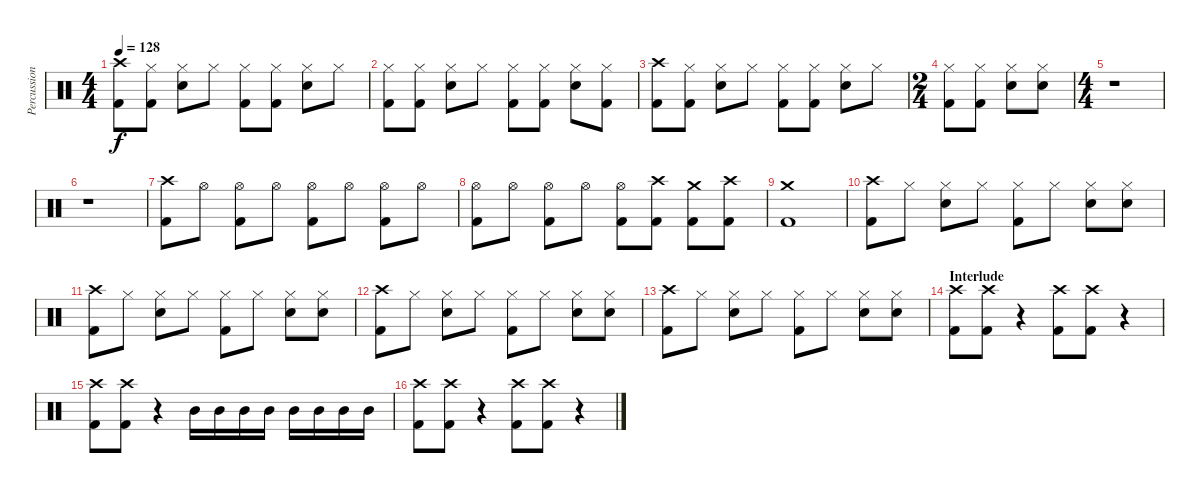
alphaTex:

\track ("Percussion" "Percussion") {instrument percussion}
\staff {score}
\articulation defaults
\ts (4 4)
\tempo 128
\clef neutral
\ks c
("Crash high (hit)" "Kick (hit) 2").8{dy f} ("Hi-Hat (closed)" "Kick (hit) 2").8 ("Hi-Hat (closed)" "Snare (hit) 2").8 "Hi-Hat (closed)".8 ("Hi-Hat (closed)" "Kick (hit) 2").8 ("Hi-Hat (closed)" "Kick (hit) 2").8 ("Hi-Hat (closed)" "Snare (hit) 2").8 "Hi-Hat (closed)".8 |
("Hi-Hat (closed)" "Kick (hit) 2").8 ("Hi-Hat (closed)" "Kick (hit) 2").8 ("Hi-Hat (closed)" "Snare (hit) 2").8 "Hi-Hat (closed)".8 ("Hi-Hat (closed)" "Kick (hit) 2").8 ("Hi-Hat (closed)" "Kick (hit) 2").8 ("Hi-Hat (closed)" "Snare (hit) 2").8 ("Hi-Hat (closed)" "Kick (hit) 2").8 |
("Crash high (hit)" "Kick (hit) 2").8 ("Hi-Hat (closed)" "Kick (hit) 2").8 ("Hi-Hat (closed)" "Snare (hit) 2").8 "Hi-Hat (closed)".8 ("Hi-Hat (closed)" "Kick (hit) 2").8 ("Hi-Hat (closed)" "Kick (hit) 2").8 ("Hi-Hat (closed)" "Snare (hit) 2").8 "Hi-Hat (closed)".8 |
\ts (2 4)
("Hi-Hat (closed)" "Kick (hit) 2").8 ("Hi-Hat (closed)" "Kick (hit) 2").8 ("Hi-Hat (closed)" "Snare (hit) 2").8 ("Hi-Hat (closed)" "Snare (hit) 2").8 |
\ts (4 4)
r.1 |
r.1 |
("Crash high (hit)" "Kick (hit) 2").8 "Hi-Hat (open)".8 ("Hi-Hat (open)" "Kick (hit) 2").8 "Hi-Hat (open)".8 ("Hi-Hat (open)" "Kick (hit) 2").8 "Hi-Hat (open)".8 ("Hi-Hat (open)" "Kick (hit) 2").8 "Hi-Hat (open)".8 |
("Hi-Hat (open)" "Kick (hit) 2").8 "Hi-Hat (open)".8 ("Hi-Hat (open)" "Kick (hit) 2").8 "Hi-Hat (open)".8 ("Hi-Hat (open)" "Kick (hit) 2").8 ("Crash high (hit)" "Kick (hit) 2").8 ("Crash medium (hit)" "Kick (hit) 2").8 ("Crash high (hit)" "Kick (hit) 2").8 |
("Crash medium (hit)" "Kick (hit) 2").1 |
("Crash high (hit)" "Kick (hit) 2").8 "Hi-Hat (closed)".8 ("Hi-Hat (closed)" "Snare (hit) 2").8 "Hi-Hat (closed)".8 ("Hi-Hat (closed)" "Kick (hit) 2").8 "Hi-Hat (closed)".8 ("Hi-Hat (closed)" "Snare (hit) 2").8 ("Hi-Hat (closed)" "Snare (hit) 2").8 |
("Crash high (hit)" "Kick (hit) 2").8 "Hi-Hat (closed)".8 ("Hi-Hat (closed)" "Snare (hit) 2").8 "Hi-Hat (closed)".8 ("Hi-Hat (closed)" "Kick (hit) 2").8 "Hi-Hat (closed)".8 ("Hi-Hat (closed)" "Snare (hit) 2").8 ("Hi-Hat (closed)" "Snare (hit) 2").8 |
("Crash high (hit)" "Kick (hit) 2").8 "Hi-Hat (closed)".8 ("Hi-Hat (closed)" "Snare (hit) 2").8 "Hi-Hat (closed)".8 ("Hi-Hat (closed)" "Kick (hit) 2").8 "Hi-Hat (closed)".8 ("Hi-Hat (closed)" "Snare (hit) 2").8 ("Hi-Hat (closed)" "Snare (hit) 2").8 |
("Crash high (hit)" "Kick (hit) 2").8 "Hi-Hat (closed)".8 ("Hi-Hat (closed)" "Snare (hit) 2").8 "Hi-Hat (closed)".8 ("Hi-Hat (closed)" "Kick (hit) 2").8 "Hi-Hat (closed)".8 ("Hi-Hat (closed)" "Snare (hit) 2").8 ("Hi-Hat (closed)" "Snare (hit) 2").8 |
\section ("" "Interlude")
("Crash high (hit)" "Kick (hit) 2").8 ("Crash high (hit)" "Kick (hit) 2").8 r.4 ("Crash high (hit)" "Kick (hit) 2").8 ("Crash high (hit)" "Kick (hit) 2").8 r.4 |
("Crash high (hit)" "Kick (hit) 2").8 ("Crash high (hit)" "Kick (hit) 2").8 r.4 "Mid Tom (hit)".16 "Mid Tom (hit)".16 "Mid Tom (hit)".16 "Mid Tom (hit)".16 "Mid Tom (hit)".16 "Mid Tom (hit)".16 "Mid Tom (hit)".16 "Mid Tom (hit)".16 |
("Crash high (hit)" "Kick (hit) 2").8 ("Crash high (hit)" "Kick (hit) 2").8 r.4 ("Crash high (hit)" "Kick (hit) 2").8 ("Crash high (hit)" "Kick (hit) 2").8 r.4
